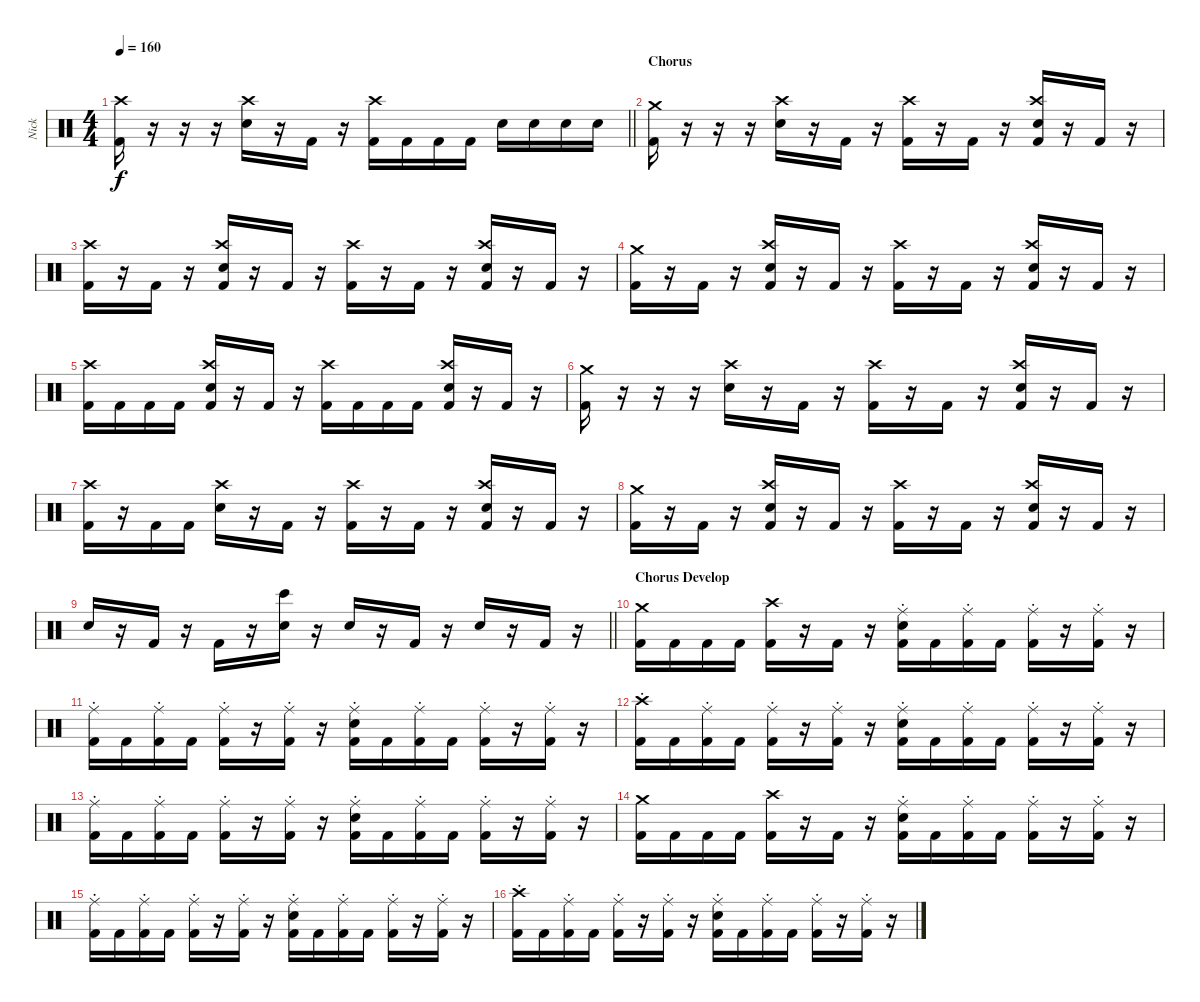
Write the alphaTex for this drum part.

\track ("Nick" "Nick") {instrument percussion}
\staff {score}
\articulation defaults
\ts (4 4)
\tempo 160
\clef neutral
\barLineRight lightlight
\ks c
("Kick (hit) 2" "Crash high (hit)").16{dy f} r.16 r.16 r.16 ("Electric Snare (hit)" "Crash high (hit)").16 r.16 "Kick (hit) 2".16 r.16 ("Kick (hit) 2" "Crash high (hit)").16 "Kick (hit) 2".16 "Kick (hit) 2".16 "Kick (hit) 2".16 "Electric Snare (hit)".16 "Electric Snare (hit)".16 "Electric Snare (hit)".16 "Electric Snare (hit)".16 |
\section ("" "Chorus")
("Kick (hit) 2" "Crash medium (hit)").16 r.16 r.16 r.16 ("Electric Snare (hit)" "Crash high (hit)").16 r.16 "Kick (hit) 2".16 r.16 ("Kick (hit) 2" "Crash high (hit)").16 r.16 "Kick (hit) 2".16 r.16 ("Kick (hit) 2" "Electric Snare (hit)" "Crash high (hit)").16 r.16 "Kick (hit) 2".16 r.16 |
("Kick (hit) 2" "Crash high (hit)").16 r.16 "Kick (hit) 2".16 r.16 ("Kick (hit) 2" "Electric Snare (hit)" "Crash high (hit)").16 r.16 "Kick (hit) 2".16 r.16 ("Kick (hit) 2" "Crash high (hit)").16 r.16 "Kick (hit) 2".16 r.16 ("Kick (hit) 2" "Electric Snare (hit)" "Crash high (hit)").16 r.16 "Kick (hit) 2".16 r.16 |
("Kick (hit) 2" "Crash medium (hit)").16 r.16 "Kick (hit) 2".16 r.16 ("Kick (hit) 2" "Electric Snare (hit)" "Crash high (hit)").16 r.16 "Kick (hit) 2".16 r.16 ("Kick (hit) 2" "Crash high (hit)").16 r.16 "Kick (hit) 2".16 r.16 ("Kick (hit) 2" "Electric Snare (hit)" "Crash high (hit)").16 r.16 "Kick (hit) 2".16 r.16 |
("Kick (hit) 2" "Crash high (hit)").16 "Kick (hit) 2".16 "Kick (hit) 2".16 "Kick (hit) 2".16 ("Kick (hit) 2" "Electric Snare (hit)" "Crash high (hit)").16 r.16 "Kick (hit) 2".16 r.16 ("Kick (hit) 2" "Crash high (hit)").16 "Kick (hit) 2".16 "Kick (hit) 2".16 "Kick (hit) 2".16 ("Kick (hit) 2" "Electric Snare (hit)" "Crash high (hit)").16 r.16 "Kick (hit) 2".16 r.16 |
("Kick (hit) 2" "Crash medium (hit)").16 r.16 r.16 r.16 ("Electric Snare (hit)" "Crash high (hit)").16 r.16 "Kick (hit) 2".16 r.16 ("Kick (hit) 2" "Crash high (hit)").16 r.16 "Kick (hit) 2".16 r.16 ("Kick (hit) 2" "Electric Snare (hit)" "Crash high (hit)").16 r.16 "Kick (hit) 2".16 r.16 |
("Kick (hit) 2" "Crash high (hit)").16 r.16 "Kick (hit) 2".16 "Kick (hit) 2".16 ("Electric Snare (hit)" "Crash high (hit)").16 r.16 "Kick (hit) 2".16 r.16 ("Kick (hit) 2" "Crash high (hit)").16 r.16 "Kick (hit) 2".16 r.16 ("Kick (hit) 2" "Electric Snare (hit)" "Crash high (hit)").16 r.16 "Kick (hit) 2".16 r.16 |
("Kick (hit) 2" "Crash medium (hit)").16 r.16 "Kick (hit) 2".16 r.16 ("Kick (hit) 2" "Electric Snare (hit)" "Crash high (hit)").16 r.16 "Kick (hit) 2".16 r.16 ("Kick (hit) 2" "Crash high (hit)").16 r.16 "Kick (hit) 2".16 r.16 ("Kick (hit) 2" "Electric Snare (hit)" "Crash high (hit)").16 r.16 "Kick (hit) 2".16 r.16 |
\barLineRight lightlight "Electric Snare (hit)".16
r.16 "Kick (hit) 2".16 r.16 "Kick (hit) 2".16 r.16 ("Electric Snare (hit)" "Bongo High (hit)").16 r.16 "Electric Snare (hit)".16 r.16 "Kick (hit) 2".16 r.16 "Electric Snare (hit)".16 r.16 "Kick (hit) 2".16 r.16 |
\section ("" "Chorus Develop")
("Kick (hit) 2" "Crash medium (hit)").16 "Kick (hit) 2".16 "Kick (hit) 2".16 "Kick (hit) 2".16 ("Kick (hit) 2" "Crash high (hit)").16 r.16 "Kick (hit) 2".16 r.16 ("Kick (hit) 2" "Electric Snare (hit)" "Ride (middle)"{st}).16 "Kick (hit) 2".16 ("Kick (hit) 2" "Ride (middle)"{st}).16 "Kick (hit) 2".16 ("Kick (hit) 2" "Ride (middle)"{st}).16 r.16 ("Kick (hit) 2" "Ride (middle)"{st}).16 r.16 |
("Kick (hit) 2" "Ride (middle)"{st}).16 "Kick (hit) 2".16 ("Kick (hit) 2" "Ride (middle)"{st}).16 "Kick (hit) 2".16 ("Kick (hit) 2" "Ride (middle)"{st}).16 r.16 ("Kick (hit) 2" "Ride (middle)"{st}).16 r.16 ("Kick (hit) 2" "Electric Snare (hit)" "Ride (middle)"{st}).16 "Kick (hit) 2".16 ("Kick (hit) 2" "Ride (middle)"{st}).16 "Kick (hit) 2".16 ("Kick (hit) 2" "Ride (middle)"{st}).16 r.16 ("Kick (hit) 2" "Ride (middle)"{st}).16 r.16 |
("Kick (hit) 2" "Crash high (hit)"{st}).16 "Kick (hit) 2".16 ("Kick (hit) 2" "Ride (middle)"{st}).16 "Kick (hit) 2".16 ("Kick (hit) 2" "Ride (middle)"{st}).16 r.16 ("Kick (hit) 2" "Ride (middle)"{st}).16 r.16 ("Kick (hit) 2" "Electric Snare (hit)" "Ride (middle)"{st}).16 "Kick (hit) 2".16 ("Kick (hit) 2" "Ride (middle)"{st}).16 "Kick (hit) 2".16 ("Kick (hit) 2" "Ride (middle)"{st}).16 r.16 ("Kick (hit) 2" "Ride (middle)"{st}).16 r.16 |
("Kick (hit) 2" "Ride (middle)"{st}).16 "Kick (hit) 2".16 ("Kick (hit) 2" "Ride (middle)"{st}).16 "Kick (hit) 2".16 ("Kick (hit) 2" "Ride (middle)"{st}).16 r.16 ("Kick (hit) 2" "Ride (middle)"{st}).16 r.16 ("Kick (hit) 2" "Electric Snare (hit)" "Ride (middle)"{st}).16 "Kick (hit) 2".16 ("Kick (hit) 2" "Ride (middle)"{st}).16 "Kick (hit) 2".16 ("Kick (hit) 2" "Ride (middle)"{st}).16 r.16 ("Kick (hit) 2" "Ride (middle)"{st}).16 r.16 |
("Kick (hit) 2" "Crash medium (hit)").16 "Kick (hit) 2".16 "Kick (hit) 2".16 "Kick (hit) 2".16 ("Kick (hit) 2" "Crash high (hit)").16 r.16 "Kick (hit) 2".16 r.16 ("Kick (hit) 2" "Electric Snare (hit)" "Ride (middle)"{st}).16 "Kick (hit) 2".16 ("Kick (hit) 2" "Ride (middle)"{st}).16 "Kick (hit) 2".16 ("Kick (hit) 2" "Ride (middle)"{st}).16 r.16 ("Kick (hit) 2" "Ride (middle)"{st}).16 r.16 |
("Kick (hit) 2" "Ride (middle)"{st}).16 "Kick (hit) 2".16 ("Kick (hit) 2" "Ride (middle)"{st}).16 "Kick (hit) 2".16 ("Kick (hit) 2" "Ride (middle)"{st}).16 r.16 ("Kick (hit) 2" "Ride (middle)"{st}).16 r.16 ("Kick (hit) 2" "Electric Snare (hit)" "Ride (middle)"{st}).16 "Kick (hit) 2".16 ("Kick (hit) 2" "Ride (middle)"{st}).16 "Kick (hit) 2".16 ("Kick (hit) 2" "Ride (middle)"{st}).16 r.16 ("Kick (hit) 2" "Ride (middle)"{st}).16 r.16 |
("Kick (hit) 2" "Crash high (hit)"{st}).16 "Kick (hit) 2".16 ("Kick (hit) 2" "Ride (middle)"{st}).16 "Kick (hit) 2".16 ("Kick (hit) 2" "Ride (middle)"{st}).16 r.16 ("Kick (hit) 2" "Ride (middle)"{st}).16 r.16 ("Kick (hit) 2" "Electric Snare (hit)" "Ride (middle)"{st}).16 "Kick (hit) 2".16 ("Kick (hit) 2" "Ride (middle)"{st}).16 "Kick (hit) 2".16 ("Kick (hit) 2" "Ride (middle)"{st}).16 r.16 ("Kick (hit) 2" "Ride (middle)"{st}).16 r.16
